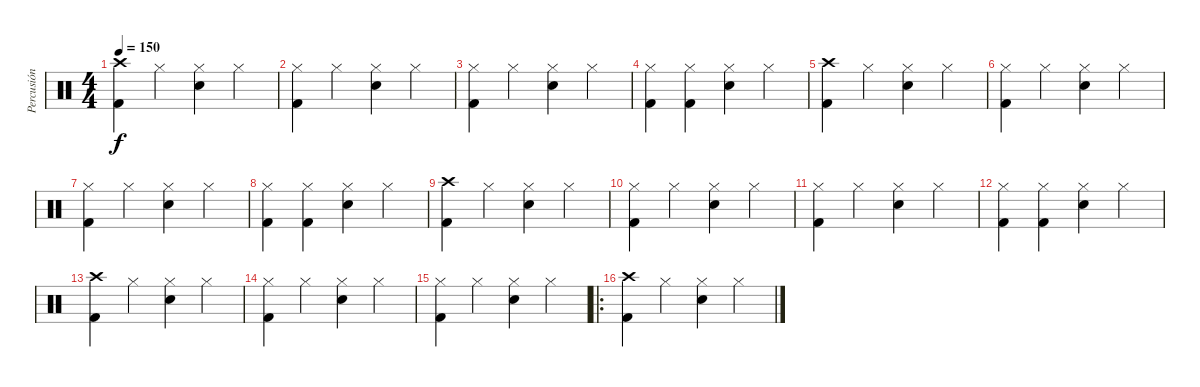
\track ("Percusión" "Percusión") {instrument percussion}
\staff {score}
\articulation defaults
\ts (4 4)
\tempo 150
\clef neutral
\ks c
("Kick (hit) 2" "Crash high (hit)").4{dy f} "Hi-Hat (closed)".4 ("Snare (hit) 2" "Hi-Hat (closed)").4 "Hi-Hat (closed)".4 |
("Kick (hit) 2" "Hi-Hat (closed)").4 "Hi-Hat (closed)".4 ("Snare (hit) 2" "Hi-Hat (closed)").4 "Hi-Hat (closed)".4 |
("Kick (hit) 2" "Hi-Hat (closed)").4 "Hi-Hat (closed)".4 ("Snare (hit) 2" "Hi-Hat (closed)").4 "Hi-Hat (closed)".4 |
("Kick (hit) 2" "Hi-Hat (closed)").4 ("Kick (hit) 2" "Hi-Hat (closed)").4 ("Snare (hit) 2" "Hi-Hat (closed)").4 "Hi-Hat (closed)".4 |
("Kick (hit) 2" "Crash high (hit)").4 "Hi-Hat (closed)".4 ("Snare (hit) 2" "Hi-Hat (closed)").4 "Hi-Hat (closed)".4 |
("Kick (hit) 2" "Hi-Hat (closed)").4 "Hi-Hat (closed)".4 ("Snare (hit) 2" "Hi-Hat (closed)").4 "Hi-Hat (closed)".4 |
("Kick (hit) 2" "Hi-Hat (closed)").4 "Hi-Hat (closed)".4 ("Snare (hit) 2" "Hi-Hat (closed)").4 "Hi-Hat (closed)".4 |
("Kick (hit) 2" "Hi-Hat (closed)").4 ("Kick (hit) 2" "Hi-Hat (closed)").4 ("Snare (hit) 2" "Hi-Hat (closed)").4 "Hi-Hat (closed)".4 |
("Kick (hit) 2" "Crash high (hit)").4 "Hi-Hat (closed)".4 ("Snare (hit) 2" "Hi-Hat (closed)").4 "Hi-Hat (closed)".4 |
("Kick (hit) 2" "Hi-Hat (closed)").4 "Hi-Hat (closed)".4 ("Snare (hit) 2" "Hi-Hat (closed)").4 "Hi-Hat (closed)".4 |
("Kick (hit) 2" "Hi-Hat (closed)").4 "Hi-Hat (closed)".4 ("Snare (hit) 2" "Hi-Hat (closed)").4 "Hi-Hat (closed)".4 |
("Kick (hit) 2" "Hi-Hat (closed)").4 ("Kick (hit) 2" "Hi-Hat (closed)").4 ("Snare (hit) 2" "Hi-Hat (closed)").4 "Hi-Hat (closed)".4 |
("Kick (hit) 2" "Crash high (hit)").4 "Hi-Hat (closed)".4 ("Snare (hit) 2" "Hi-Hat (closed)").4 "Hi-Hat (closed)".4 |
("Kick (hit) 2" "Hi-Hat (closed)").4 "Hi-Hat (closed)".4 ("Snare (hit) 2" "Hi-Hat (closed)").4 "Hi-Hat (closed)".4 |
("Kick (hit) 2" "Hi-Hat (closed)").4 "Hi-Hat (closed)".4 ("Snare (hit) 2" "Hi-Hat (closed)").4 "Hi-Hat (closed)".4 |
\ro
("Kick (hit) 2" "Crash high (hit)").4 "Hi-Hat (closed)".4 ("Snare (hit) 2" "Hi-Hat (closed)").4 "Hi-Hat (closed)".4
